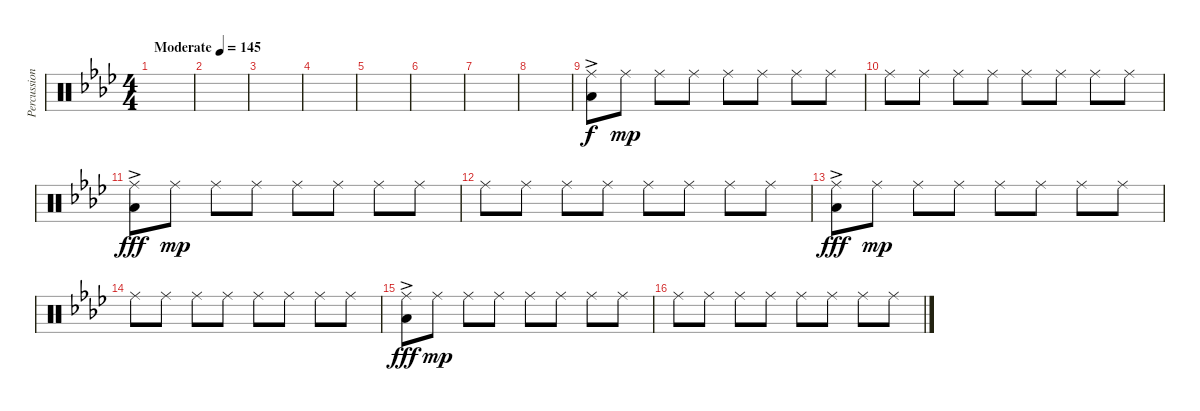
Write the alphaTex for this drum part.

\track ("Percussion" "Percussion") {instrument percussion}
\staff {score}
\articulation defaults
\ts (4 4)
\tempo (145 "Moderate")
\clef neutral
\ks ab
|
|
|
|
|
|
|
|
("Ride (middle)" "Low Floor Tom (hit)"{ac}).8 "Ride (middle)".8{dy mp} "Ride (middle)".8 "Ride (middle)".8 "Ride (middle)".8 "Ride (middle)".8 "Ride (middle)".8 "Ride (middle)".8 |
"Ride (middle)".8 "Ride (middle)".8 "Ride (middle)".8 "Ride (middle)".8 "Ride (middle)".8 "Ride (middle)".8 "Ride (middle)".8 "Ride (middle)".8 |
("Ride (middle)" "Low Floor Tom (hit)"{ac}).8{dy fff} "Ride (middle)".8{dy mp} "Ride (middle)".8 "Ride (middle)".8 "Ride (middle)".8 "Ride (middle)".8 "Ride (middle)".8 "Ride (middle)".8 |
"Ride (middle)".8 "Ride (middle)".8 "Ride (middle)".8 "Ride (middle)".8 "Ride (middle)".8 "Ride (middle)".8 "Ride (middle)".8 "Ride (middle)".8 |
("Ride (middle)" "Low Floor Tom (hit)"{ac}).8{dy fff} "Ride (middle)".8{dy mp} "Ride (middle)".8 "Ride (middle)".8 "Ride (middle)".8 "Ride (middle)".8 "Ride (middle)".8 "Ride (middle)".8 |
"Ride (middle)".8 "Ride (middle)".8 "Ride (middle)".8 "Ride (middle)".8 "Ride (middle)".8 "Ride (middle)".8 "Ride (middle)".8 "Ride (middle)".8 |
("Ride (middle)" "Low Floor Tom (hit)"{ac}).8{dy fff} "Ride (middle)".8{dy mp} "Ride (middle)".8 "Ride (middle)".8 "Ride (middle)".8 "Ride (middle)".8 "Ride (middle)".8 "Ride (middle)".8 |
"Ride (middle)".8 "Ride (middle)".8 "Ride (middle)".8 "Ride (middle)".8 "Ride (middle)".8 "Ride (middle)".8 "Ride (middle)".8 "Ride (middle)".8
